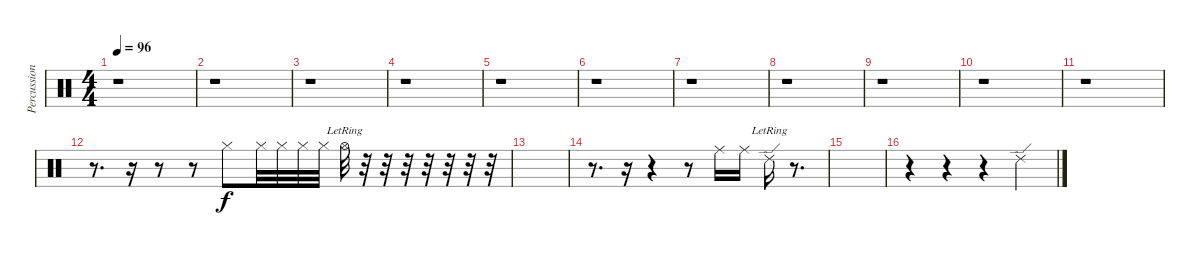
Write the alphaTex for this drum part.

\track ("Percussion" "Percussion") {instrument percussion}
\staff {score}
\articulation defaults
\ts (4 4)
\tempo 96
\clef neutral
\ks c
r.1{dy f} |
r.1 |
r.1 |
r.1 |
r.1 |
r.1 |
r.1 |
r.1 |
r.1 |
r.1 |
r.1 |
r.8{d} r.16 r.8 r.8 "Hi-Hat (closed)".8 "Hi-Hat (closed)".32 "Hi-Hat (closed)".32 "Hi-Hat (closed)".32 "Hi-Hat (closed)".32 "Hi-Hat (open)"{lr}.32 r.32 r.32 r.32 r.32 r.32 r.32 r.32 |
|
r.8{d} r.16 r.4 r.8 "Ride (middle)".16 "Ride (middle)".16 "Ride (edge) 2"{lr}.16 r.8{d} |
|
r.4 r.4 r.4 "Ride (edge) 2".4
